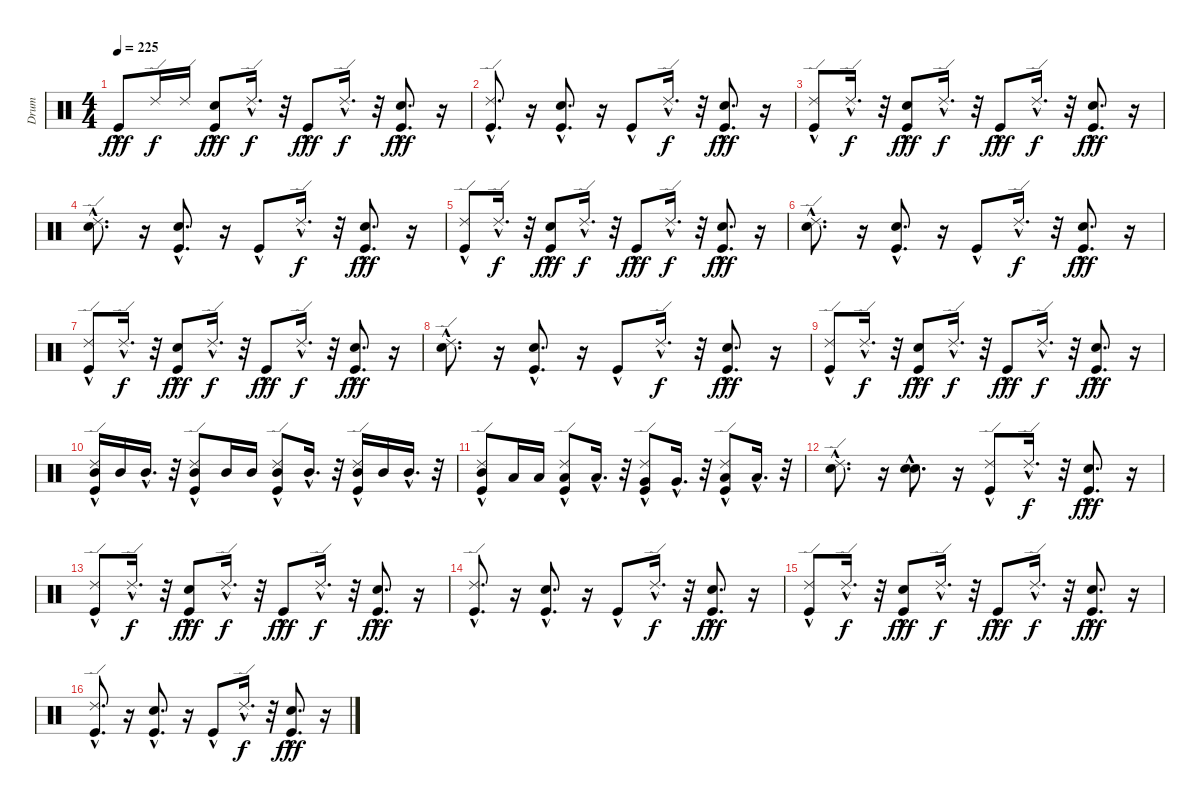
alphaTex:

\track ("Drum" "Drum") {instrument percussion}
\staff {score}
\articulation defaults
\ts (4 4)
\tempo 225
\clef neutral
\ks c "Kick (hit)"{hac}.8{dy fff} "Ride (edge) 2".16{dy f} "Ride (edge) 2".16
("Kick (hit)"{hac} "Electric Snare (hit)"{hac}).8{dy fff} "Ride (edge) 2"{hac}.16{d dy f} r.32 "Kick (hit)"{hac}.8{dy fff} "Ride (edge) 2"{hac}.16{d dy f} r.32 ("Kick (hit)"{hac} "Electric Snare (hit)"{hac}).8{d dy fff} r.16 |
("Kick (hit)"{hac} "Ride (edge) 2"{hac}).8{d} r.16 ("Kick (hit)"{hac} "Electric Snare (hit)"{hac}).8{d} r.16 "Kick (hit)"{hac}.8 "Ride (edge) 2"{hac}.16{d dy f} r.32 ("Kick (hit)"{hac} "Electric Snare (hit)"{hac}).8{d dy fff} r.16 |
("Kick (hit)"{hac} "Ride (edge) 2"{hac}).8 "Ride (edge) 2"{hac}.16{d dy f} r.32 ("Kick (hit)"{hac} "Electric Snare (hit)"{hac}).8{dy fff} "Ride (edge) 2"{hac}.16{d dy f} r.32 "Kick (hit)"{hac}.8{dy fff} "Ride (edge) 2"{hac}.16{d dy f} r.32 ("Kick (hit)"{hac} "Electric Snare (hit)"{hac}).8{d dy fff} r.16 |
("Snare (hit) 2"{hac} "Ride (edge) 2"{hac}).8{d} r.16 ("Kick (hit)"{hac} "Electric Snare (hit)"{hac}).8{d} r.16 "Kick (hit)"{hac}.8 "Ride (edge) 2"{hac}.16{d dy f} r.32 ("Kick (hit)"{hac} "Electric Snare (hit)"{hac}).8{d dy fff} r.16 |
("Kick (hit)"{hac} "Ride (edge) 2"{hac}).8 "Ride (edge) 2"{hac}.16{d dy f} r.32 ("Kick (hit)"{hac} "Electric Snare (hit)"{hac}).8{dy fff} "Ride (edge) 2"{hac}.16{d dy f} r.32 "Kick (hit)"{hac}.8{dy fff} "Ride (edge) 2"{hac}.16{d dy f} r.32 ("Kick (hit)"{hac} "Electric Snare (hit)"{hac}).8{d dy fff} r.16 |
("Snare (hit) 2"{hac} "Ride (edge) 2"{hac}).8{d} r.16 ("Kick (hit)"{hac} "Electric Snare (hit)"{hac}).8{d} r.16 "Kick (hit)"{hac}.8 "Ride (edge) 2"{hac}.16{d dy f} r.32 ("Kick (hit)"{hac} "Electric Snare (hit)"{hac}).8{d dy fff} r.16 |
("Kick (hit)"{hac} "Ride (edge) 2"{hac}).8 "Ride (edge) 2"{hac}.16{d dy f} r.32 ("Kick (hit)"{hac} "Electric Snare (hit)"{hac}).8{dy fff} "Ride (edge) 2"{hac}.16{d dy f} r.32 "Kick (hit)"{hac}.8{dy fff} "Ride (edge) 2"{hac}.16{d dy f} r.32 ("Kick (hit)"{hac} "Electric Snare (hit)"{hac}).8{d dy fff} r.16 |
("Snare (hit) 2"{hac} "Ride (edge) 2"{hac}).8{d} r.16 ("Kick (hit)"{hac} "Electric Snare (hit)"{hac}).8{d} r.16 "Kick (hit)"{hac}.8 "Ride (edge) 2"{hac}.16{d dy f} r.32 ("Kick (hit)"{hac} "Electric Snare (hit)"{hac}).8{d dy fff} r.16 |
("Kick (hit)"{hac} "Ride (edge) 2"{hac}).8 "Ride (edge) 2"{hac}.16{d dy f} r.32 ("Kick (hit)"{hac} "Electric Snare (hit)"{hac}).8{dy fff} "Ride (edge) 2"{hac}.16{d dy f} r.32 "Kick (hit)"{hac}.8{dy fff} "Ride (edge) 2"{hac}.16{d dy f} r.32 ("Kick (hit)"{hac} "Electric Snare (hit)"{hac}).8{d dy fff} r.16 |
("Kick (hit)"{hac} "Mid Tom (hit)" "Ride (edge) 2"{hac}).16 "Mid Tom (hit)".16 "Mid Tom (hit)"{hac}.16{d} r.32 ("Kick (hit)"{hac} "Mid Tom (hit)"{hac} "Ride (edge) 2"{hac}).8 "Mid Tom (hit)".16 "Mid Tom (hit)".16 ("Kick (hit)"{hac} "Mid Tom (hit)"{hac} "Ride (edge) 2"{hac}).8 "Mid Tom (hit)"{hac}.16{d} r.32 ("Kick (hit)"{hac} "Mid Tom (hit)" "Ride (edge) 2"{hac}).16 "Mid Tom (hit)".16 "Mid Tom (hit)"{hac}.16{d} r.32 |
("Kick (hit)"{hac} "Mid Tom (hit)"{hac} "Ride (edge) 2"{hac}).8 "Low Tom (hit)".16 "Low Tom (hit)".16 ("Kick (hit)"{hac} "Low Tom (hit)"{hac} "Ride (edge) 2"{hac}).8 "Low Tom (hit)"{hac}.16{d} r.32 ("Kick (hit)"{hac} "Very Low Tom (hit)"{hac} "Ride (edge) 2"{hac}).8 "Very Low Tom (hit)"{hac}.16{d} r.32 ("Kick (hit)"{hac} "Low Floor Tom (hit)"{hac} "Ride (edge) 2"{hac}).8 "Low Floor Tom (hit)"{hac}.16{d} r.32 |
("Snare (hit) 2"{hac} "Ride (edge) 2"{hac}).8{d} r.16 ("Snare (hit) 2"{hac} "Electric Snare (hit)"{hac}).8{d} r.16 ("Kick (hit)"{hac} "Ride (edge) 2"{hac}).8 "Ride (edge) 2"{hac}.16{d dy f} r.32 ("Kick (hit)"{hac} "Electric Snare (hit)"{hac}).8{d dy fff} r.16 |
("Kick (hit)"{hac} "Ride (edge) 2"{hac}).8 "Ride (edge) 2"{hac}.16{d dy f} r.32 ("Kick (hit)"{hac} "Electric Snare (hit)"{hac}).8{dy fff} "Ride (edge) 2"{hac}.16{d dy f} r.32 "Kick (hit)"{hac}.8{dy fff} "Ride (edge) 2"{hac}.16{d dy f} r.32 ("Kick (hit)"{hac} "Electric Snare (hit)"{hac}).8{d dy fff} r.16 |
("Kick (hit)"{hac} "Ride (edge) 2"{hac}).8{d} r.16 ("Kick (hit)"{hac} "Electric Snare (hit)"{hac}).8{d} r.16 "Kick (hit)"{hac}.8 "Ride (edge) 2"{hac}.16{d dy f} r.32 ("Kick (hit)"{hac} "Electric Snare (hit)"{hac}).8{d dy fff} r.16 |
("Kick (hit)"{hac} "Ride (edge) 2"{hac}).8 "Ride (edge) 2"{hac}.16{d dy f} r.32 ("Kick (hit)"{hac} "Electric Snare (hit)"{hac}).8{dy fff} "Ride (edge) 2"{hac}.16{d dy f} r.32 "Kick (hit)"{hac}.8{dy fff} "Ride (edge) 2"{hac}.16{d dy f} r.32 ("Kick (hit)"{hac} "Electric Snare (hit)"{hac}).8{d dy fff} r.16 |
("Kick (hit)"{hac} "Ride (edge) 2"{hac}).8{d} r.16 ("Kick (hit)"{hac} "Electric Snare (hit)"{hac}).8{d} r.16 "Kick (hit)"{hac}.8 "Ride (edge) 2"{hac}.16{d dy f} r.32 ("Kick (hit)"{hac} "Electric Snare (hit)"{hac}).8{d dy fff} r.16
